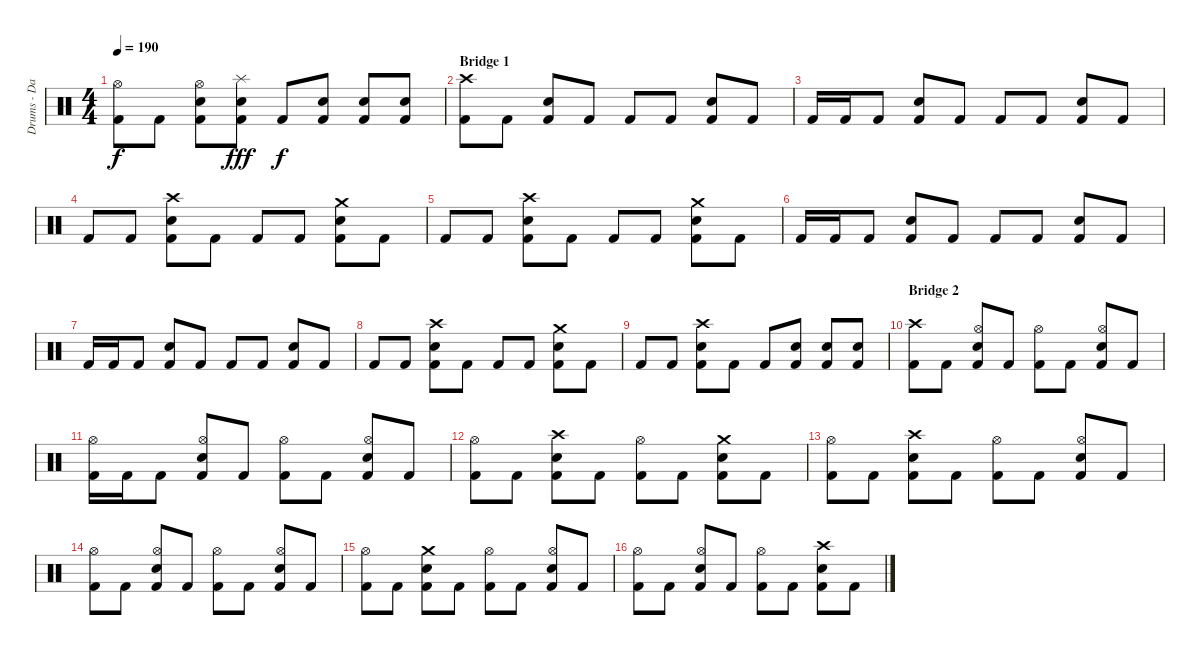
\track ("Drums - Daniel Zimmermann" "Drums - Da") {instrument percussion}
\staff {score}
\articulation defaults
\ts (4 4)
\tempo 190
\clef neutral
\ks c
("Kick (hit) 2" "Hi-Hat (open)").8{dy f} "Kick (hit) 2".8 ("Kick (hit) 2" "Electric Snare (hit)" "Hi-Hat (open)").8 ("Kick (hit) 2" "Electric Snare (hit)" "Splash (hit)").8{dy fff} "Kick (hit) 2".8{dy f} ("Kick (hit) 2" "Electric Snare (hit)").8 ("Kick (hit) 2" "Electric Snare (hit)").8 ("Kick (hit) 2" "Electric Snare (hit)").8 |
\section ("" "Bridge 1")
("Kick (hit) 2" "Crash high (hit)").8 "Kick (hit) 2".8 ("Kick (hit) 2" "Electric Snare (hit)").8 "Kick (hit) 2".8 "Kick (hit) 2".8 "Kick (hit) 2".8 ("Kick (hit) 2" "Electric Snare (hit)").8 "Kick (hit) 2".8 |
"Kick (hit) 2".16 "Kick (hit) 2".16 "Kick (hit) 2".8 ("Kick (hit) 2" "Electric Snare (hit)").8 "Kick (hit) 2".8 "Kick (hit) 2".8 "Kick (hit) 2".8 ("Kick (hit) 2" "Electric Snare (hit)").8 "Kick (hit) 2".8 |
"Kick (hit) 2".8 "Kick (hit) 2".8 ("Kick (hit) 2" "Electric Snare (hit)" "Crash high (hit)").8 "Kick (hit) 2".8 "Kick (hit) 2".8 "Kick (hit) 2".8 ("Kick (hit) 2" "Electric Snare (hit)" "Crash medium (hit)").8 "Kick (hit) 2".8 |
"Kick (hit) 2".8 "Kick (hit) 2".8 ("Kick (hit) 2" "Electric Snare (hit)" "Crash high (hit)").8 "Kick (hit) 2".8 "Kick (hit) 2".8 "Kick (hit) 2".8 ("Kick (hit) 2" "Electric Snare (hit)" "Crash medium (hit)").8 "Kick (hit) 2".8 |
"Kick (hit) 2".16 "Kick (hit) 2".16 "Kick (hit) 2".8 ("Kick (hit) 2" "Electric Snare (hit)").8 "Kick (hit) 2".8 "Kick (hit) 2".8 "Kick (hit) 2".8 ("Kick (hit) 2" "Electric Snare (hit)").8 "Kick (hit) 2".8 |
"Kick (hit) 2".16 "Kick (hit) 2".16 "Kick (hit) 2".8 ("Kick (hit) 2" "Electric Snare (hit)").8 "Kick (hit) 2".8 "Kick (hit) 2".8 "Kick (hit) 2".8 ("Kick (hit) 2" "Electric Snare (hit)").8 "Kick (hit) 2".8 |
"Kick (hit) 2".8 "Kick (hit) 2".8 ("Kick (hit) 2" "Electric Snare (hit)" "Crash high (hit)").8 "Kick (hit) 2".8 "Kick (hit) 2".8 "Kick (hit) 2".8 ("Kick (hit) 2" "Electric Snare (hit)" "Crash medium (hit)").8 "Kick (hit) 2".8 |
"Kick (hit) 2".8 "Kick (hit) 2".8 ("Kick (hit) 2" "Electric Snare (hit)" "Crash high (hit)").8 "Kick (hit) 2".8 "Kick (hit) 2".8 ("Kick (hit) 2" "Electric Snare (hit)").8 ("Kick (hit) 2" "Electric Snare (hit)").8 ("Kick (hit) 2" "Electric Snare (hit)").8 |
\section ("" "Bridge 2")
("Kick (hit) 2" "Crash high (hit)").8 "Kick (hit) 2".8 ("Kick (hit) 2" "Electric Snare (hit)" "Hi-Hat (open)").8 "Kick (hit) 2".8 ("Kick (hit) 2" "Hi-Hat (open)").8 "Kick (hit) 2".8 ("Kick (hit) 2" "Electric Snare (hit)" "Hi-Hat (open)").8 "Kick (hit) 2".8 |
("Kick (hit) 2" "Hi-Hat (open)").16 "Kick (hit) 2".16 "Kick (hit) 2".8 ("Kick (hit) 2" "Electric Snare (hit)" "Hi-Hat (open)").8 "Kick (hit) 2".8 ("Kick (hit) 2" "Hi-Hat (open)").8 "Kick (hit) 2".8 ("Kick (hit) 2" "Electric Snare (hit)" "Hi-Hat (open)").8 "Kick (hit) 2".8 |
("Kick (hit) 2" "Hi-Hat (open)").8 "Kick (hit) 2".8 ("Kick (hit) 2" "Electric Snare (hit)" "Crash high (hit)").8 "Kick (hit) 2".8 ("Kick (hit) 2" "Hi-Hat (open)").8 "Kick (hit) 2".8 ("Kick (hit) 2" "Electric Snare (hit)" "Crash medium (hit)").8 "Kick (hit) 2".8 |
("Kick (hit) 2" "Hi-Hat (open)").8 "Kick (hit) 2".8 ("Kick (hit) 2" "Electric Snare (hit)" "Crash high (hit)").8 "Kick (hit) 2".8 ("Kick (hit) 2" "Hi-Hat (open)").8 "Kick (hit) 2".8 ("Kick (hit) 2" "Electric Snare (hit)" "Hi-Hat (open)").8 "Kick (hit) 2".8 |
("Kick (hit) 2" "Hi-Hat (open)").8 "Kick (hit) 2".8 ("Kick (hit) 2" "Electric Snare (hit)" "Hi-Hat (open)").8 "Kick (hit) 2".8 ("Kick (hit) 2" "Hi-Hat (open)").8 "Kick (hit) 2".8 ("Kick (hit) 2" "Electric Snare (hit)" "Hi-Hat (open)").8 "Kick (hit) 2".8 |
("Kick (hit) 2" "Hi-Hat (open)").8 "Kick (hit) 2".8 ("Kick (hit) 2" "Electric Snare (hit)" "Crash medium (hit)").8 "Kick (hit) 2".8 ("Kick (hit) 2" "Hi-Hat (open)").8 "Kick (hit) 2".8 ("Kick (hit) 2" "Electric Snare (hit)" "Hi-Hat (open)").8 "Kick (hit) 2".8 |
("Kick (hit) 2" "Hi-Hat (open)").8 "Kick (hit) 2".8 ("Kick (hit) 2" "Electric Snare (hit)" "Hi-Hat (open)").8 "Kick (hit) 2".8 ("Kick (hit) 2" "Hi-Hat (open)").8 "Kick (hit) 2".8 ("Kick (hit) 2" "Electric Snare (hit)" "Crash high (hit)").8 "Kick (hit) 2".8
